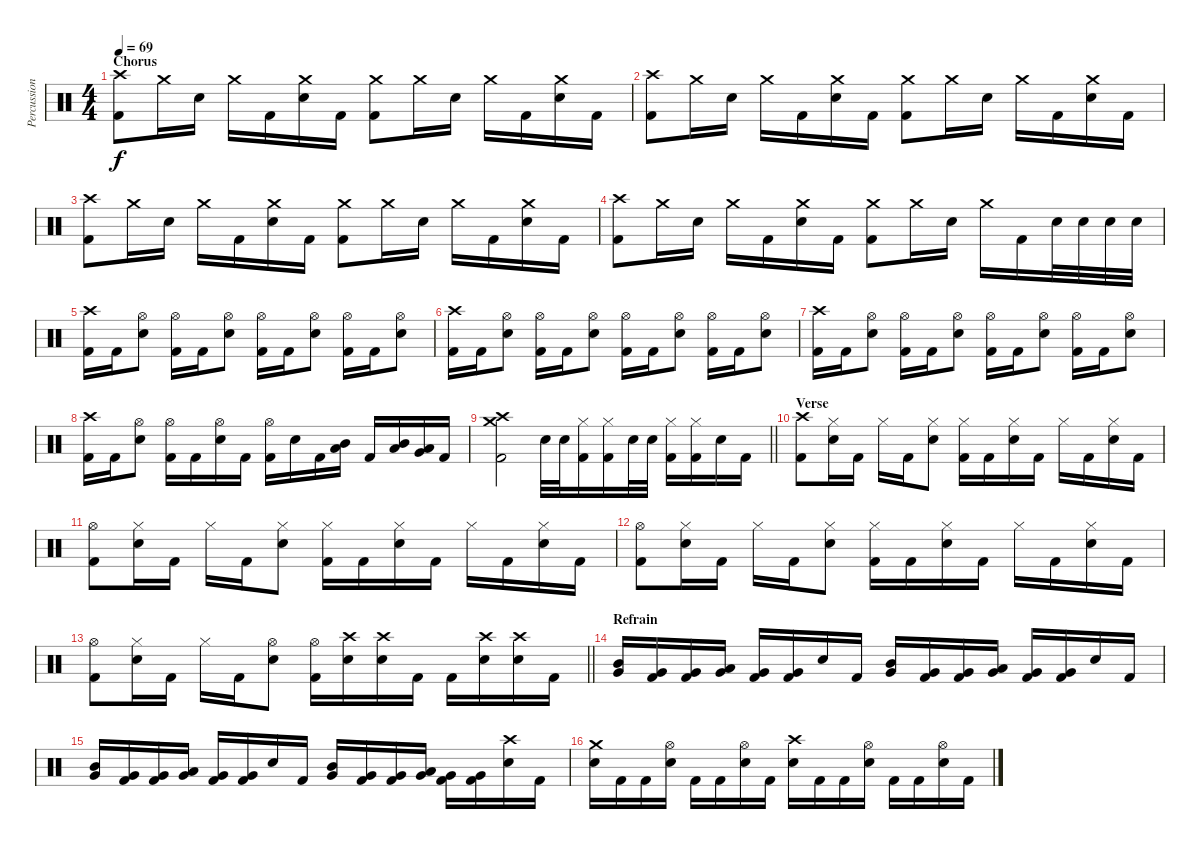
\track ("Percussion" "Percussion") {instrument percussion}
\staff {score}
\articulation defaults
\ts (4 4)
\section ("" "Chorus")
\tempo 69
\clef neutral
\ks c
("Crash high (hit)" "Kick (hit) 2").8{dy f} "Crash medium (hit)".16 "Electric Snare (hit)".16 "Crash medium (hit)".16 "Kick (hit) 2".16 ("Crash medium (hit)" "Electric Snare (hit)").16 "Kick (hit) 2".16 ("Crash medium (hit)" "Kick (hit) 2").8 "Crash medium (hit)".16 "Electric Snare (hit)".16 "Crash medium (hit)".16 "Kick (hit) 2".16 ("Crash medium (hit)" "Electric Snare (hit)").16 "Kick (hit) 2".16 |
("Crash high (hit)" "Kick (hit) 2").8 "Crash medium (hit)".16 "Electric Snare (hit)".16 "Crash medium (hit)".16 "Kick (hit) 2".16 ("Crash medium (hit)" "Electric Snare (hit)").16 "Kick (hit) 2".16 ("Crash medium (hit)" "Kick (hit) 2").8 "Crash medium (hit)".16 "Electric Snare (hit)".16 "Crash medium (hit)".16 "Kick (hit) 2".16 ("Crash medium (hit)" "Electric Snare (hit)").16 "Kick (hit) 2".16 |
("Crash high (hit)" "Kick (hit) 2").8 "Crash medium (hit)".16 "Electric Snare (hit)".16 "Crash medium (hit)".16 "Kick (hit) 2".16 ("Crash medium (hit)" "Electric Snare (hit)").16 "Kick (hit) 2".16 ("Crash medium (hit)" "Kick (hit) 2").8 "Crash medium (hit)".16 "Electric Snare (hit)".16 "Crash medium (hit)".16 "Kick (hit) 2".16 ("Crash medium (hit)" "Electric Snare (hit)").16 "Kick (hit) 2".16 |
("Crash high (hit)" "Kick (hit) 2").8 "Crash medium (hit)".16 "Electric Snare (hit)".16 "Crash medium (hit)".16 "Kick (hit) 2".16 ("Crash medium (hit)" "Electric Snare (hit)").16 "Kick (hit) 2".16 ("Crash medium (hit)" "Kick (hit) 2").8 "Crash medium (hit)".16 "Electric Snare (hit)".16 "Crash medium (hit)".16 "Kick (hit) 2".16 "Electric Snare (hit)".32 "Electric Snare (hit)".32 "Electric Snare (hit)".32 "Electric Snare (hit)".32 |
("Crash high (hit)" "Kick (hit) 2").16 "Kick (hit) 2".16 ("Hi-Hat (open)" "Electric Snare (hit)").8 ("Hi-Hat (open)" "Kick (hit) 2").16 "Kick (hit) 2".16 ("Hi-Hat (open)" "Electric Snare (hit)").8 ("Hi-Hat (open)" "Kick (hit) 2").16 "Kick (hit) 2".16 ("Hi-Hat (open)" "Electric Snare (hit)").8 ("Hi-Hat (open)" "Kick (hit) 2").16 "Kick (hit) 2".16 ("Hi-Hat (open)" "Electric Snare (hit)").8 |
("Crash high (hit)" "Kick (hit) 2").16 "Kick (hit) 2".16 ("Hi-Hat (open)" "Electric Snare (hit)").8 ("Hi-Hat (open)" "Kick (hit) 2").16 "Kick (hit) 2".16 ("Hi-Hat (open)" "Electric Snare (hit)").8 ("Hi-Hat (open)" "Kick (hit) 2").16 "Kick (hit) 2".16 ("Hi-Hat (open)" "Electric Snare (hit)").8 ("Hi-Hat (open)" "Kick (hit) 2").16 "Kick (hit) 2".16 ("Hi-Hat (open)" "Electric Snare (hit)").8 |
("Crash high (hit)" "Kick (hit) 2").16 "Kick (hit) 2".16 ("Hi-Hat (open)" "Electric Snare (hit)").8 ("Hi-Hat (open)" "Kick (hit) 2").16 "Kick (hit) 2".16 ("Hi-Hat (open)" "Electric Snare (hit)").8 ("Hi-Hat (open)" "Kick (hit) 2").16 "Kick (hit) 2".16 ("Hi-Hat (open)" "Electric Snare (hit)").8 ("Hi-Hat (open)" "Kick (hit) 2").16 "Kick (hit) 2".16 ("Hi-Hat (open)" "Electric Snare (hit)").8 |
("Crash high (hit)" "Kick (hit) 2").16 "Kick (hit) 2".16 ("Hi-Hat (open)" "Electric Snare (hit)").8 ("Hi-Hat (open)" "Kick (hit) 2").16 "Kick (hit) 2".16 ("Hi-Hat (open)" "Electric Snare (hit)").16 "Kick (hit) 2".16 ("Hi-Hat (open)" "Kick (hit) 2").16 "Electric Snare (hit)".16 "Kick (hit) 2".16 ("Low Tom (hit)" "Mid Tom (hit)").16 "Kick (hit) 2".16 ("Low Tom (hit)" "Mid Tom (hit)").16 ("Very Low Tom (hit)" "Low Floor Tom (hit)").16 "Kick (hit) 2".16 |
\barLineRight lightlight
("Crash high (hit)" "Crash medium (hit)" "Kick (hit) 2").2 "Electric Snare (hit)".32 "Electric Snare (hit)".32 ("Hi-Hat (closed)" "Kick (hit) 2").16 ("Hi-Hat (closed)" "Kick (hit) 2").16 "Electric Snare (hit)".32 "Electric Snare (hit)".32 ("Hi-Hat (closed)" "Kick (hit) 2").16 ("Hi-Hat (closed)" "Kick (hit) 2").16 "Electric Snare (hit)".16 "Kick (hit) 2".16 |
\section ("" "Verse")
("Crash high (hit)" "Kick (hit) 2").8 ("Hi-Hat (closed)" "Electric Snare (hit)").16 "Kick (hit) 2".16 "Hi-Hat (closed)".16 "Kick (hit) 2".16 ("Hi-Hat (closed)" "Electric Snare (hit)").8 ("Hi-Hat (closed)" "Kick (hit) 2").16 "Kick (hit) 2".16 ("Hi-Hat (closed)" "Electric Snare (hit)").16 "Kick (hit) 2".16 "Hi-Hat (closed)".16 "Kick (hit) 2".16 ("Hi-Hat (closed)" "Electric Snare (hit)").16 "Kick (hit) 2".16 |
("Hi-Hat (open)" "Kick (hit) 2").8 ("Hi-Hat (closed)" "Electric Snare (hit)").16 "Kick (hit) 2".16 "Hi-Hat (closed)".16 "Kick (hit) 2".16 ("Hi-Hat (closed)" "Electric Snare (hit)").8 ("Hi-Hat (closed)" "Kick (hit) 2").16 "Kick (hit) 2".16 ("Hi-Hat (closed)" "Electric Snare (hit)").16 "Kick (hit) 2".16 "Hi-Hat (closed)".16 "Kick (hit) 2".16 ("Hi-Hat (closed)" "Electric Snare (hit)").16 "Kick (hit) 2".16 |
("Hi-Hat (open)" "Kick (hit) 2").8 ("Hi-Hat (closed)" "Electric Snare (hit)").16 "Kick (hit) 2".16 "Hi-Hat (closed)".16 "Kick (hit) 2".16 ("Hi-Hat (closed)" "Electric Snare (hit)").8 ("Hi-Hat (closed)" "Kick (hit) 2").16 "Kick (hit) 2".16 ("Hi-Hat (closed)" "Electric Snare (hit)").16 "Kick (hit) 2".16 "Hi-Hat (closed)".16 "Kick (hit) 2".16 ("Hi-Hat (closed)" "Electric Snare (hit)").16 "Kick (hit) 2".16 |
\barLineRight lightlight
("Hi-Hat (open)" "Kick (hit) 2").8 ("Hi-Hat (closed)" "Electric Snare (hit)").16 "Kick (hit) 2".16 "Hi-Hat (closed)".16 "Kick (hit) 2".16 ("Hi-Hat (open)" "Electric Snare (hit)").8 ("Hi-Hat (open)" "Kick (hit) 2").16 ("Crash high (hit)" "Electric Snare (hit)").16 ("Crash high (hit)" "Electric Snare (hit)").16 "Kick (hit) 2".16 "Kick (hit) 2".16 ("Crash high (hit)" "Electric Snare (hit)").16 ("Crash high (hit)" "Electric Snare (hit)").16 "Kick (hit) 2".16 |
\section ("" "Refrain")
("Very Low Tom (hit)" "Mid Tom (hit)").16 ("Very Low Tom (hit)" "Kick (hit) 2").16 ("Very Low Tom (hit)" "Kick (hit) 2").16 ("Very Low Tom (hit)" "Low Tom (hit)").16 ("Very Low Tom (hit)" "Kick (hit) 2").16 ("Very Low Tom (hit)" "Kick (hit) 2").16 "Electric Snare (hit)".16 "Kick (hit) 2".16 ("Very Low Tom (hit)" "Mid Tom (hit)").16 ("Very Low Tom (hit)" "Kick (hit) 2").16 ("Very Low Tom (hit)" "Kick (hit) 2").16 ("Very Low Tom (hit)" "Low Tom (hit)").16 ("Very Low Tom (hit)" "Kick (hit) 2").16 ("Very Low Tom (hit)" "Kick (hit) 2").16 "Electric Snare (hit)".16 "Kick (hit) 2".16 |
("Very Low Tom (hit)" "Mid Tom (hit)").16 ("Very Low Tom (hit)" "Kick (hit) 2").16 ("Very Low Tom (hit)" "Kick (hit) 2").16 ("Very Low Tom (hit)" "Low Tom (hit)").16 ("Very Low Tom (hit)" "Kick (hit) 2").16 ("Very Low Tom (hit)" "Kick (hit) 2").16 "Electric Snare (hit)".16 "Kick (hit) 2".16 ("Very Low Tom (hit)" "Mid Tom (hit)").16 ("Very Low Tom (hit)" "Kick (hit) 2").16 ("Very Low Tom (hit)" "Kick (hit) 2").16 ("Very Low Tom (hit)" "Low Tom (hit)").16 ("Very Low Tom (hit)" "Kick (hit) 2").16 ("Very Low Tom (hit)" "Kick (hit) 2").16 ("Crash high (hit)" "Electric Snare (hit)").16 "Kick (hit) 2".16 |
("Crash medium (hit)" "Electric Snare (hit)").16 "Kick (hit) 2".16 "Kick (hit) 2".16 ("Hi-Hat (open)" "Electric Snare (hit)").16 "Kick (hit) 2".16 "Kick (hit) 2".16 ("Hi-Hat (open)" "Electric Snare (hit)").16 "Kick (hit) 2".16 ("Crash high (hit)" "Electric Snare (hit)").16 "Kick (hit) 2".16 "Kick (hit) 2".16 ("Hi-Hat (open)" "Electric Snare (hit)").16 "Kick (hit) 2".16 "Kick (hit) 2".16 ("Hi-Hat (open)" "Electric Snare (hit)").16 "Kick (hit) 2".16
